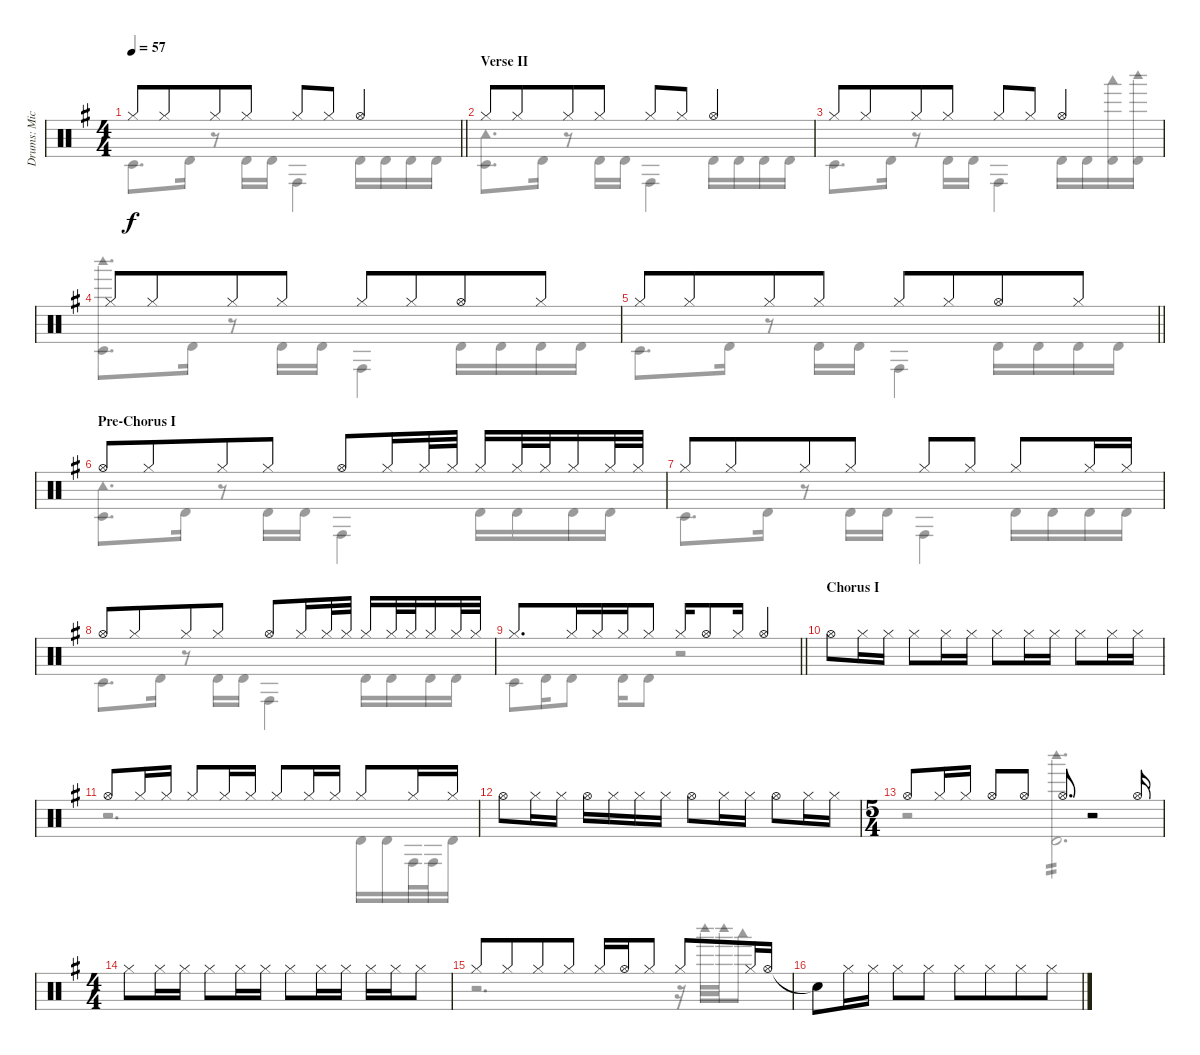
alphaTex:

\track ("Drums: Mick" "Drums: Mic") {instrument percussion}
\staff {score}
\articulation defaults
\voice
\ts (4 4)
\tempo 57
\clef neutral
\barLineRight lightlight
\ks g "Hi-Hat (closed)".8{dy f} "Hi-Hat (closed)".8{beam merge} "Hi-Hat (closed)".8 "Hi-Hat (closed)".8 "Hi-Hat (closed)".8 "Hi-Hat (closed)".8{beam merge} "Hi-Hat (open)".4
|
\section ("" "Verse II")
"Hi-Hat (closed)".8 "Hi-Hat (closed)".8{beam merge} "Hi-Hat (closed)".8 "Hi-Hat (closed)".8 "Hi-Hat (closed)".8 "Hi-Hat (closed)".8{beam merge} "Hi-Hat (open)".4 |
"Hi-Hat (closed)".8 "Hi-Hat (closed)".8{beam merge} "Hi-Hat (closed)".8 "Hi-Hat (closed)".8 "Hi-Hat (closed)".8 "Hi-Hat (closed)".8{beam merge} "Hi-Hat (open)".4 |
"Hi-Hat (closed)".8 "Hi-Hat (closed)".8{beam merge} "Hi-Hat (closed)".8 "Hi-Hat (closed)".8 "Hi-Hat (closed)".8 "Hi-Hat (closed)".8{beam merge} "Hi-Hat (open)".8 "Hi-Hat (closed)".8 |
\barLineRight lightlight "Hi-Hat (closed)".8 "Hi-Hat (closed)".8{beam merge} "Hi-Hat (closed)".8 "Hi-Hat (closed)".8 "Hi-Hat (closed)".8 "Hi-Hat (closed)".8{beam merge} "Hi-Hat (open)".8 "Hi-Hat (closed)".8
|
\section ("" "Pre-Chorus I")
"Hi-Hat (open)".8 "Hi-Hat (closed)".8{beam merge} "Hi-Hat (closed)".8 "Hi-Hat (closed)".8 "Hi-Hat (open)".8 "Hi-Hat (closed)".16{beam merge} "Hi-Hat (closed)".32 "Hi-Hat (closed)".32 "Hi-Hat (closed)".16 "Hi-Hat (closed)".32 "Hi-Hat (closed)".32 "Hi-Hat (closed)".16 "Hi-Hat (closed)".32 "Hi-Hat (closed)".32 |
"Hi-Hat (closed)".8 "Hi-Hat (closed)".8{beam merge} "Hi-Hat (closed)".8 "Hi-Hat (closed)".8 "Hi-Hat (closed)".8 "Hi-Hat (closed)".8 "Hi-Hat (closed)".8 "Hi-Hat (closed)".16 "Hi-Hat (closed)".16 |
"Hi-Hat (open)".8 "Hi-Hat (closed)".8{beam merge} "Hi-Hat (closed)".8 "Hi-Hat (closed)".8 "Hi-Hat (open)".8 "Hi-Hat (closed)".16{beam merge} "Hi-Hat (closed)".32 "Hi-Hat (closed)".32 "Hi-Hat (closed)".16 "Hi-Hat (closed)".32 "Hi-Hat (closed)".32 "Hi-Hat (closed)".16 "Hi-Hat (closed)".32 "Hi-Hat (closed)".32 |
\barLineRight lightlight "Hi-Hat (closed)".8{d} "Hi-Hat (closed)".16{beam merge} "Hi-Hat (closed)".16 "Hi-Hat (closed)".16 "Hi-Hat (closed)".8 "Hi-Hat (closed)".16 "Hi-Hat (open)".8 "Hi-Hat (closed)".16 "Hi-Hat (open)".4
|
\section ("" "Chorus I")
"Hi-Hat (open)".8 "Hi-Hat (closed)".16 "Hi-Hat (closed)".16 "Hi-Hat (closed)".8 "Hi-Hat (closed)".16 "Hi-Hat (closed)".16 "Hi-Hat (closed)".8 "Hi-Hat (closed)".16 "Hi-Hat (closed)".16 "Hi-Hat (closed)".8 "Hi-Hat (closed)".16 "Hi-Hat (closed)".16 |
"Hi-Hat (open)".8 "Hi-Hat (closed)".16 "Hi-Hat (closed)".16 "Hi-Hat (closed)".8 "Hi-Hat (closed)".16 "Hi-Hat (closed)".16 "Hi-Hat (closed)".8 "Hi-Hat (closed)".16 "Hi-Hat (closed)".16 "Hi-Hat (closed)".8 "Hi-Hat (closed)".16 "Hi-Hat (closed)".16 |
"Hi-Hat (open)".8 "Hi-Hat (closed)".16 "Hi-Hat (closed)".16 "Hi-Hat (open)".16 "Hi-Hat (closed)".16 "Hi-Hat (closed)".16 "Hi-Hat (closed)".16 "Hi-Hat (open)".8 "Hi-Hat (closed)".16 "Hi-Hat (closed)".16 "Hi-Hat (open)".8 "Hi-Hat (closed)".16 "Hi-Hat (closed)".16 |
\ts (5 4)
"Hi-Hat (open)".8 "Hi-Hat (closed)".16 "Hi-Hat (closed)".16 "Hi-Hat (open)".8 "Hi-Hat (open)".8 "Hi-Hat (open)".8{d} r.2 "Hi-Hat (open)".16 |
\ts (4 4)
"Hi-Hat (closed)".8 "Hi-Hat (closed)".16 "Hi-Hat (closed)".16 "Hi-Hat (closed)".8 "Hi-Hat (closed)".16 "Hi-Hat (closed)".16 "Hi-Hat (closed)".8 "Hi-Hat (closed)".16 "Hi-Hat (closed)".16 "Hi-Hat (closed)".16 "Hi-Hat (closed)".16 "Hi-Hat (closed)".8 |
"Hi-Hat (closed)".8 "Hi-Hat (closed)".8{beam merge} "Hi-Hat (closed)".8 "Hi-Hat (closed)".8 "Hi-Hat (closed)".16 "Hi-Hat (open)".16 "Hi-Hat (closed)".8 "Hi-Hat (closed)".8 "Hi-Hat (closed)".16 "Hi-Hat (open)".16 |
"Snare (hit)"{t}.8 "Hi-Hat (closed)".16 "Hi-Hat (closed)".16 "Hi-Hat (closed)".8 "Hi-Hat (closed)".8 "Hi-Hat (closed)".8 "Hi-Hat (closed)".8{beam merge} "Hi-Hat (closed)".8 "Hi-Hat (closed)".8
\voice
\clef neutral
\ottava regular
\simile none
\barLineRight lightlight
\ks g "Timbale low (hit)".8{d dy f} "Timbale high (hit)".16
r.8 "Timbale high (hit)".16 "Timbale high (hit)".16 "Conga high (hit)".4 "Timbale high (hit)".16 "Timbale high (hit)".16 "Timbale high (hit)".16 "Timbale high (hit)".16 |
("Tambourine (hit)" "Timbale low (hit)").8{d} "Timbale high (hit)".16 r.8 "Timbale high (hit)".16 "Timbale high (hit)".16 "Conga high (hit)".4 "Timbale high (hit)".16 "Timbale high (hit)".16 "Timbale high (hit)".16 "Timbale high (hit)".16 |
"Timbale low (hit)".8{d} "Timbale high (hit)".16 r.8 "Timbale high (hit)".16 "Timbale high (hit)".16 "Conga high (hit)".4 "Timbale high (hit)".16 "Timbale high (hit)".16 ("Woodblock low (hit)" "Timbale high (hit)").16 ("Woodblock high (hit)" "Timbale high (hit)").16 |
("Woodblock high (hit)" "Timbale low (hit)").8{d} "Timbale high (hit)".16 r.8 "Timbale high (hit)".16 "Timbale high (hit)".16 "Conga high (hit)".4 "Timbale high (hit)".16 "Timbale high (hit)".16 "Timbale high (hit)".16 "Timbale high (hit)".16 |
\barLineRight lightlight "Timbale low (hit)".8{d} "Timbale high (hit)".16
r.8 "Timbale high (hit)".16 "Timbale high (hit)".16 "Conga high (hit)".4 "Timbale high (hit)".16 "Timbale high (hit)".16 "Timbale high (hit)".16 "Timbale high (hit)".16 |
("Tambourine (hit)" "Timbale low (hit)").8{d} "Timbale high (hit)".16 r.8 "Timbale high (hit)".16 "Timbale high (hit)".16 "Conga high (hit)".4 "Timbale high (hit)".16 "Timbale high (hit)".16 "Timbale high (hit)".16 "Timbale high (hit)".16 |
"Timbale low (hit)".8{d} "Timbale high (hit)".16 r.8 "Timbale high (hit)".16 "Timbale high (hit)".16 "Conga high (hit)".4 "Timbale high (hit)".16 "Timbale high (hit)".16 "Timbale high (hit)".16 "Timbale high (hit)".16 |
"Timbale low (hit)".8{d} "Timbale high (hit)".16 r.8 "Timbale high (hit)".16 "Timbale high (hit)".16 "Conga high (hit)".4 "Timbale high (hit)".16 "Timbale high (hit)".16 "Timbale high (hit)".16 "Timbale high (hit)".16 |
\barLineRight lightlight "Timbale low (hit)".8 "Timbale high (hit)".16 "Timbale high (hit)".8 "Timbale high (hit)".16 "Timbale high (hit)".8
r.2 |
|
r.2{d} "Timbale high (hit)".16 "Timbale high (hit)".16 "Conga high (hit)".32 "Conga high (hit)".32 "Timbale high (hit)".16 |
|
r.2 ("Woodblock high (hit)" "Timbale high (hit)").2{d tp 2} |
|
r.2{d} r.16 "Woodblock high (hit)".32 "Woodblock high (hit)".32 "Woodblock low (hit)".8 |
